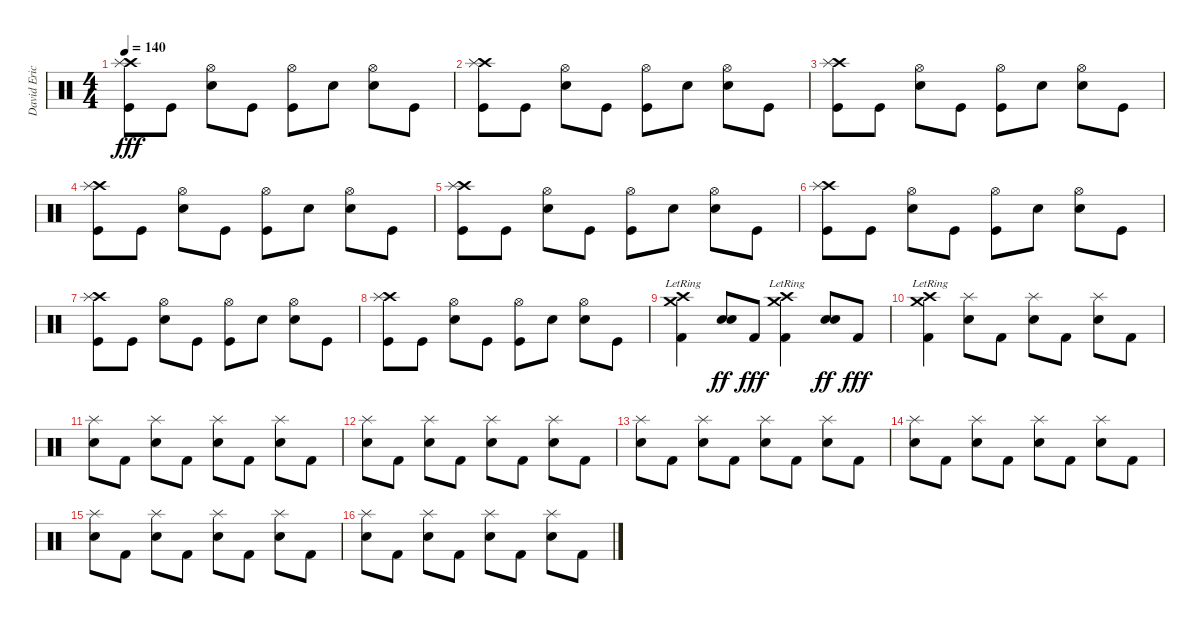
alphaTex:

\track ("David Eric Grohl" "David Eric") {instrument percussion}
\staff {score}
\articulation defaults
\ts (4 4)
\tempo 140
\clef neutral
\ks c
("Crash high (hit)" "Splash (hit)" "Kick (hit)").8{dy fff} "Kick (hit)".8 ("Hi-Hat (open)" "Electric Snare (hit)").8 "Kick (hit)".8 ("Hi-Hat (open)" "Kick (hit)").8 "Electric Snare (hit)".8 ("Hi-Hat (open)" "Electric Snare (hit)").8 "Kick (hit)".8 |
("Crash high (hit)" "Splash (hit)" "Kick (hit)").8 "Kick (hit)".8 ("Hi-Hat (open)" "Electric Snare (hit)").8 "Kick (hit)".8 ("Hi-Hat (open)" "Kick (hit)").8 "Electric Snare (hit)".8 ("Hi-Hat (open)" "Electric Snare (hit)").8 "Kick (hit)".8 |
("Crash high (hit)" "Splash (hit)" "Kick (hit)").8 "Kick (hit)".8 ("Hi-Hat (open)" "Electric Snare (hit)").8 "Kick (hit)".8 ("Hi-Hat (open)" "Kick (hit)").8 "Electric Snare (hit)".8 ("Hi-Hat (open)" "Electric Snare (hit)").8 "Kick (hit)".8 |
("Crash high (hit)" "Splash (hit)" "Kick (hit)").8 "Kick (hit)".8 ("Hi-Hat (open)" "Electric Snare (hit)").8 "Kick (hit)".8 ("Hi-Hat (open)" "Kick (hit)").8 "Electric Snare (hit)".8 ("Hi-Hat (open)" "Electric Snare (hit)").8 "Kick (hit)".8 |
("Crash high (hit)" "Splash (hit)" "Kick (hit)").8 "Kick (hit)".8 ("Hi-Hat (open)" "Electric Snare (hit)").8 "Kick (hit)".8 ("Hi-Hat (open)" "Kick (hit)").8 "Electric Snare (hit)".8 ("Hi-Hat (open)" "Electric Snare (hit)").8 "Kick (hit)".8 |
("Crash high (hit)" "Splash (hit)" "Kick (hit)").8 "Kick (hit)".8 ("Hi-Hat (open)" "Electric Snare (hit)").8 "Kick (hit)".8 ("Hi-Hat (open)" "Kick (hit)").8 "Electric Snare (hit)".8 ("Hi-Hat (open)" "Electric Snare (hit)").8 "Kick (hit)".8 |
("Crash high (hit)" "Splash (hit)" "Kick (hit)").8 "Kick (hit)".8 ("Hi-Hat (open)" "Electric Snare (hit)").8 "Kick (hit)".8 ("Hi-Hat (open)" "Kick (hit)").8 "Electric Snare (hit)".8 ("Hi-Hat (open)" "Electric Snare (hit)").8 "Kick (hit)".8 |
("Crash high (hit)" "Splash (hit)" "Kick (hit)").8 "Kick (hit)".8 ("Hi-Hat (open)" "Electric Snare (hit)").8 "Kick (hit)".8 ("Hi-Hat (open)" "Kick (hit)").8 "Electric Snare (hit)".8 ("Hi-Hat (open)" "Electric Snare (hit)").8 "Kick (hit)".8 |
("Crash high (hit)"{lr} "Crash medium (hit)"{lr} "Kick (hit) 2").4 ("Electric Snare (hit)" "Electric Snare (hit)").8{dy ff} "Kick (hit) 2".8{dy fff} ("Crash high (hit)"{lr} "Crash medium (hit)"{lr} "Kick (hit) 2").4 ("Electric Snare (hit)" "Electric Snare (hit)").8{dy ff} "Kick (hit) 2".8{dy fff} |
("Crash high (hit)"{lr} "Crash medium (hit)"{lr} "Kick (hit) 2").4 ("Electric Snare (hit)" "Splash (hit)").8 "Kick (hit) 2".8 ("Electric Snare (hit)" "Splash (hit)").8 "Kick (hit) 2".8 ("Electric Snare (hit)" "Splash (hit)").8 "Kick (hit) 2".8 |
("Electric Snare (hit)" "Splash (hit)").8 "Kick (hit) 2".8 ("Electric Snare (hit)" "Splash (hit)").8 "Kick (hit) 2".8 ("Electric Snare (hit)" "Splash (hit)").8 "Kick (hit) 2".8 ("Electric Snare (hit)" "Splash (hit)").8 "Kick (hit) 2".8 |
("Electric Snare (hit)" "Splash (hit)").8 "Kick (hit) 2".8 ("Electric Snare (hit)" "Splash (hit)").8 "Kick (hit) 2".8 ("Electric Snare (hit)" "Splash (hit)").8 "Kick (hit) 2".8 ("Electric Snare (hit)" "Splash (hit)").8 "Kick (hit) 2".8 |
("Electric Snare (hit)" "Splash (hit)").8 "Kick (hit) 2".8 ("Electric Snare (hit)" "Splash (hit)").8 "Kick (hit) 2".8 ("Electric Snare (hit)" "Splash (hit)").8 "Kick (hit) 2".8 ("Electric Snare (hit)" "Splash (hit)").8 "Kick (hit) 2".8 |
("Electric Snare (hit)" "Splash (hit)").8 "Kick (hit) 2".8 ("Electric Snare (hit)" "Splash (hit)").8 "Kick (hit) 2".8 ("Electric Snare (hit)" "Splash (hit)").8 "Kick (hit) 2".8 ("Electric Snare (hit)" "Splash (hit)").8 "Kick (hit) 2".8 |
("Electric Snare (hit)" "Splash (hit)").8 "Kick (hit) 2".8 ("Electric Snare (hit)" "Splash (hit)").8 "Kick (hit) 2".8 ("Electric Snare (hit)" "Splash (hit)").8 "Kick (hit) 2".8 ("Electric Snare (hit)" "Splash (hit)").8 "Kick (hit) 2".8 |
("Electric Snare (hit)" "Splash (hit)").8 "Kick (hit) 2".8 ("Electric Snare (hit)" "Splash (hit)").8 "Kick (hit) 2".8 ("Electric Snare (hit)" "Splash (hit)").8 "Kick (hit) 2".8 ("Electric Snare (hit)" "Splash (hit)").8 "Kick (hit) 2".8
